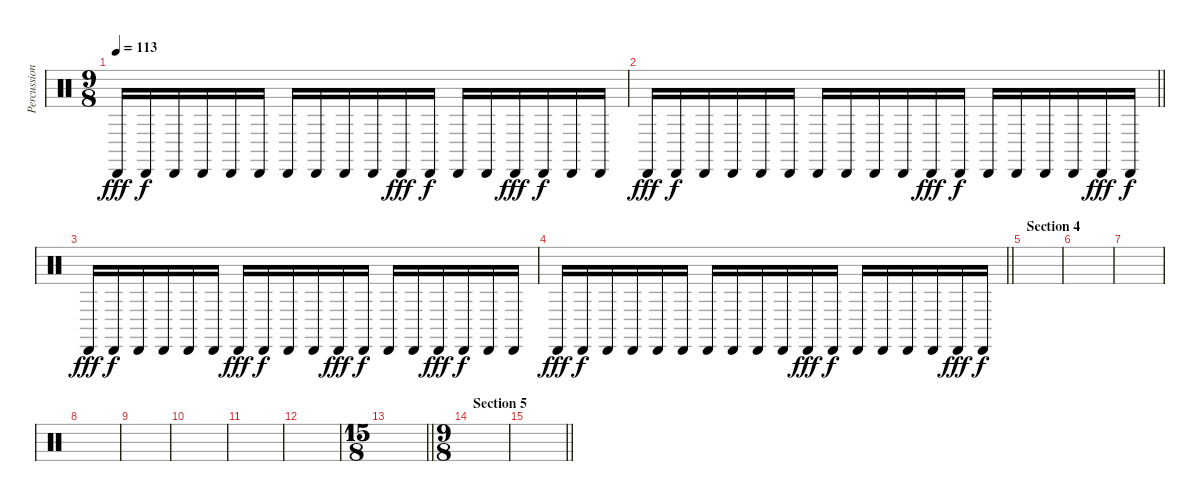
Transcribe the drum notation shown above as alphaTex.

\track ("Percussion" "Percussion") {instrument percussion}
\staff {score}
\articulation defaults
\ts (9 8)
\tempo 113
\clef neutral
\ks c "Cabasa (hit)".16{dy fff} "Cabasa (hit)".16{dy f} "Cabasa (hit)".16 "Cabasa (hit)".16 "Cabasa (hit)".16 "Cabasa (hit)".16 "Cabasa (hit)".16 "Cabasa (hit)".16 "Cabasa (hit)".16 "Cabasa (hit)".16 "Cabasa (hit)".16{dy fff} "Cabasa (hit)".16{dy f} "Cabasa (hit)".16 "Cabasa (hit)".16 "Cabasa (hit)".16{dy fff} "Cabasa (hit)".16{dy f} "Cabasa (hit)".16 "Cabasa (hit)".16
|
\barLineRight lightlight "Cabasa (hit)".16{dy fff} "Cabasa (hit)".16{dy f} "Cabasa (hit)".16 "Cabasa (hit)".16 "Cabasa (hit)".16 "Cabasa (hit)".16 "Cabasa (hit)".16 "Cabasa (hit)".16 "Cabasa (hit)".16 "Cabasa (hit)".16 "Cabasa (hit)".16{dy fff} "Cabasa (hit)".16{dy f} "Cabasa (hit)".16 "Cabasa (hit)".16 "Cabasa (hit)".16 "Cabasa (hit)".16 "Cabasa (hit)".16{dy fff} "Cabasa (hit)".16{dy f}
|
"Cabasa (hit)".16{dy fff} "Cabasa (hit)".16{dy f} "Cabasa (hit)".16 "Cabasa (hit)".16 "Cabasa (hit)".16 "Cabasa (hit)".16 "Cabasa (hit)".16{dy fff} "Cabasa (hit)".16{dy f} "Cabasa (hit)".16 "Cabasa (hit)".16 "Cabasa (hit)".16{dy fff} "Cabasa (hit)".16{dy f} "Cabasa (hit)".16 "Cabasa (hit)".16 "Cabasa (hit)".16{dy fff} "Cabasa (hit)".16{dy f} "Cabasa (hit)".16 "Cabasa (hit)".16 |
\barLineRight lightlight "Cabasa (hit)".16{dy fff} "Cabasa (hit)".16{dy f} "Cabasa (hit)".16 "Cabasa (hit)".16 "Cabasa (hit)".16 "Cabasa (hit)".16 "Cabasa (hit)".16 "Cabasa (hit)".16 "Cabasa (hit)".16 "Cabasa (hit)".16 "Cabasa (hit)".16{dy fff} "Cabasa (hit)".16{dy f} "Cabasa (hit)".16 "Cabasa (hit)".16 "Cabasa (hit)".16 "Cabasa (hit)".16 "Cabasa (hit)".16{dy fff} "Cabasa (hit)".16{dy f}
|
\section ("" "Section 4")
|
|
|
|
|
|
|
|
\ts (15 8)
\barLineRight lightlight
|
\ts (9 8)
\section ("" "Section 5")
|
\barLineRight lightlight
